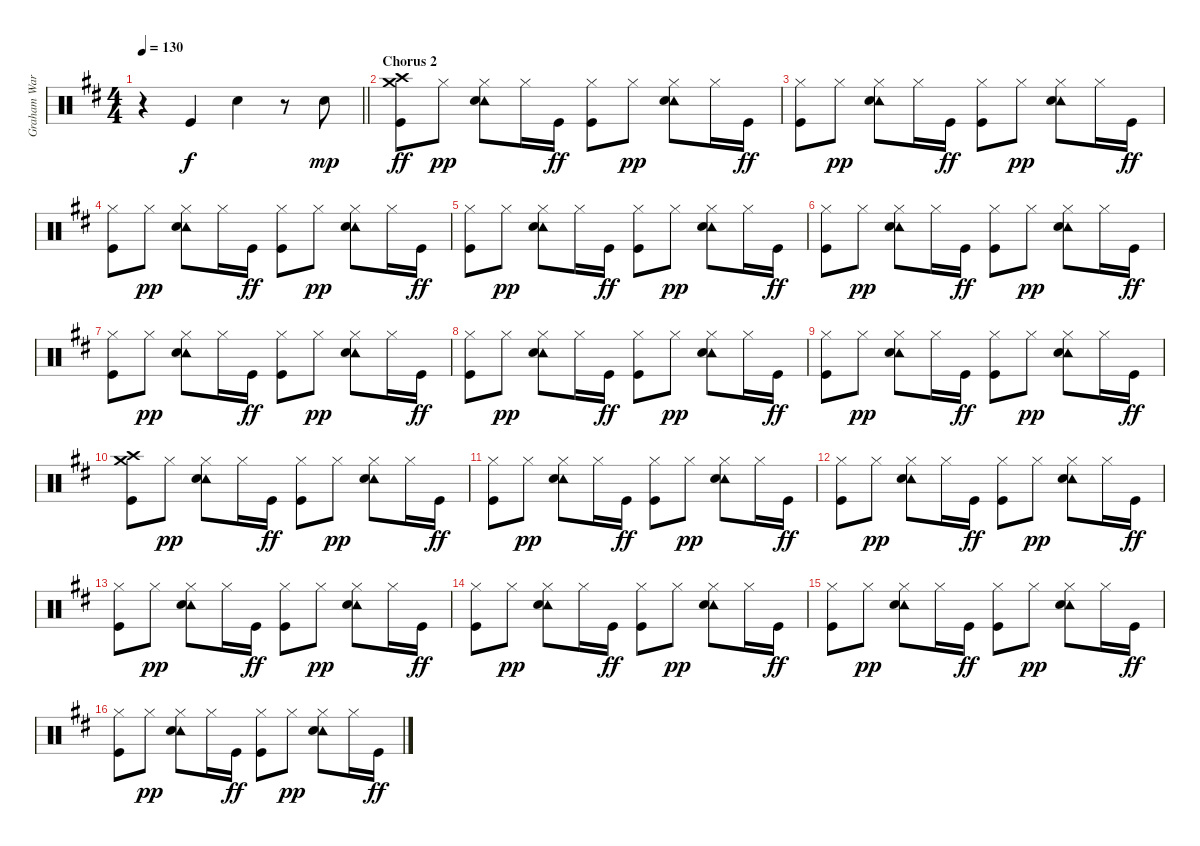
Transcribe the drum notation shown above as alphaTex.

\track ("Graham Ward (DRUMS)" "Graham War") {instrument percussion}
\staff {score}
\articulation defaults
\ts (4 4)
\tempo 130
\clef neutral
\barLineRight lightlight
\ks d
r.4{dy f} "Kick (hit)".4 "Electric Snare (hit)".4 r.8 "Electric Snare (hit)".8{dy mp} |
\section ("" "Chorus 2")
("Crash medium (hit)" "Crash high (hit)" "Kick (hit)").8{dy ff} "Hi-Hat (closed)".8{dy pp} ("Tambourine (hit)" "Snare (hit) 2" "Hi-Hat (closed)").8 "Hi-Hat (closed)".16 "Kick (hit)".16{dy ff} ("Hi-Hat (closed)" "Kick (hit)").8 "Hi-Hat (closed)".8{dy pp} ("Tambourine (hit)" "Snare (hit) 2" "Hi-Hat (closed)").8 "Hi-Hat (closed)".16 "Kick (hit)".16{dy ff} |
("Hi-Hat (closed)" "Kick (hit)").8 "Hi-Hat (closed)".8{dy pp} ("Tambourine (hit)" "Snare (hit) 2" "Hi-Hat (closed)").8 "Hi-Hat (closed)".16 "Kick (hit)".16{dy ff} ("Hi-Hat (closed)" "Kick (hit)").8 "Hi-Hat (closed)".8{dy pp} ("Tambourine (hit)" "Snare (hit) 2" "Hi-Hat (closed)").8 "Hi-Hat (closed)".16 "Kick (hit)".16{dy ff} |
("Hi-Hat (closed)" "Kick (hit)").8 "Hi-Hat (closed)".8{dy pp} ("Tambourine (hit)" "Snare (hit) 2" "Hi-Hat (closed)").8 "Hi-Hat (closed)".16 "Kick (hit)".16{dy ff} ("Hi-Hat (closed)" "Kick (hit)").8 "Hi-Hat (closed)".8{dy pp} ("Tambourine (hit)" "Snare (hit) 2" "Hi-Hat (closed)").8 "Hi-Hat (closed)".16 "Kick (hit)".16{dy ff} |
("Hi-Hat (closed)" "Kick (hit)").8 "Hi-Hat (closed)".8{dy pp} ("Tambourine (hit)" "Snare (hit) 2" "Hi-Hat (closed)").8 "Hi-Hat (closed)".16 "Kick (hit)".16{dy ff} ("Hi-Hat (closed)" "Kick (hit)").8 "Hi-Hat (closed)".8{dy pp} ("Tambourine (hit)" "Snare (hit) 2" "Hi-Hat (closed)").8 "Hi-Hat (closed)".16 "Kick (hit)".16{dy ff} |
("Hi-Hat (closed)" "Kick (hit)").8 "Hi-Hat (closed)".8{dy pp} ("Tambourine (hit)" "Snare (hit) 2" "Hi-Hat (closed)").8 "Hi-Hat (closed)".16 "Kick (hit)".16{dy ff} ("Hi-Hat (closed)" "Kick (hit)").8 "Hi-Hat (closed)".8{dy pp} ("Tambourine (hit)" "Snare (hit) 2" "Hi-Hat (closed)").8 "Hi-Hat (closed)".16 "Kick (hit)".16{dy ff} |
("Hi-Hat (closed)" "Kick (hit)").8 "Hi-Hat (closed)".8{dy pp} ("Tambourine (hit)" "Snare (hit) 2" "Hi-Hat (closed)").8 "Hi-Hat (closed)".16 "Kick (hit)".16{dy ff} ("Hi-Hat (closed)" "Kick (hit)").8 "Hi-Hat (closed)".8{dy pp} ("Tambourine (hit)" "Snare (hit) 2" "Hi-Hat (closed)").8 "Hi-Hat (closed)".16 "Kick (hit)".16{dy ff} |
("Hi-Hat (closed)" "Kick (hit)").8 "Hi-Hat (closed)".8{dy pp} ("Tambourine (hit)" "Snare (hit) 2" "Hi-Hat (closed)").8 "Hi-Hat (closed)".16 "Kick (hit)".16{dy ff} ("Hi-Hat (closed)" "Kick (hit)").8 "Hi-Hat (closed)".8{dy pp} ("Tambourine (hit)" "Snare (hit) 2" "Hi-Hat (closed)").8 "Hi-Hat (closed)".16 "Kick (hit)".16{dy ff} |
("Hi-Hat (closed)" "Kick (hit)").8 "Hi-Hat (closed)".8{dy pp} ("Tambourine (hit)" "Snare (hit) 2" "Hi-Hat (closed)").8 "Hi-Hat (closed)".16 "Kick (hit)".16{dy ff} ("Hi-Hat (closed)" "Kick (hit)").8 "Hi-Hat (closed)".8{dy pp} ("Tambourine (hit)" "Snare (hit) 2" "Hi-Hat (closed)").8 "Hi-Hat (closed)".16 "Kick (hit)".16{dy ff} |
("Crash medium (hit)" "Crash high (hit)" "Kick (hit)").8 "Hi-Hat (closed)".8{dy pp} ("Tambourine (hit)" "Snare (hit) 2" "Hi-Hat (closed)").8 "Hi-Hat (closed)".16 "Kick (hit)".16{dy ff} ("Hi-Hat (closed)" "Kick (hit)").8 "Hi-Hat (closed)".8{dy pp} ("Tambourine (hit)" "Snare (hit) 2" "Hi-Hat (closed)").8 "Hi-Hat (closed)".16 "Kick (hit)".16{dy ff} |
("Hi-Hat (closed)" "Kick (hit)").8 "Hi-Hat (closed)".8{dy pp} ("Tambourine (hit)" "Snare (hit) 2" "Hi-Hat (closed)").8 "Hi-Hat (closed)".16 "Kick (hit)".16{dy ff} ("Hi-Hat (closed)" "Kick (hit)").8 "Hi-Hat (closed)".8{dy pp} ("Tambourine (hit)" "Snare (hit) 2" "Hi-Hat (closed)").8 "Hi-Hat (closed)".16 "Kick (hit)".16{dy ff} |
("Hi-Hat (closed)" "Kick (hit)").8 "Hi-Hat (closed)".8{dy pp} ("Tambourine (hit)" "Snare (hit) 2" "Hi-Hat (closed)").8 "Hi-Hat (closed)".16 "Kick (hit)".16{dy ff} ("Hi-Hat (closed)" "Kick (hit)").8 "Hi-Hat (closed)".8{dy pp} ("Tambourine (hit)" "Snare (hit) 2" "Hi-Hat (closed)").8 "Hi-Hat (closed)".16 "Kick (hit)".16{dy ff} |
("Hi-Hat (closed)" "Kick (hit)").8 "Hi-Hat (closed)".8{dy pp} ("Tambourine (hit)" "Snare (hit) 2" "Hi-Hat (closed)").8 "Hi-Hat (closed)".16 "Kick (hit)".16{dy ff} ("Hi-Hat (closed)" "Kick (hit)").8 "Hi-Hat (closed)".8{dy pp} ("Tambourine (hit)" "Snare (hit) 2" "Hi-Hat (closed)").8 "Hi-Hat (closed)".16 "Kick (hit)".16{dy ff} |
("Hi-Hat (closed)" "Kick (hit)").8 "Hi-Hat (closed)".8{dy pp} ("Tambourine (hit)" "Snare (hit) 2" "Hi-Hat (closed)").8 "Hi-Hat (closed)".16 "Kick (hit)".16{dy ff} ("Hi-Hat (closed)" "Kick (hit)").8 "Hi-Hat (closed)".8{dy pp} ("Tambourine (hit)" "Snare (hit) 2" "Hi-Hat (closed)").8 "Hi-Hat (closed)".16 "Kick (hit)".16{dy ff} |
("Hi-Hat (closed)" "Kick (hit)").8 "Hi-Hat (closed)".8{dy pp} ("Tambourine (hit)" "Snare (hit) 2" "Hi-Hat (closed)").8 "Hi-Hat (closed)".16 "Kick (hit)".16{dy ff} ("Hi-Hat (closed)" "Kick (hit)").8 "Hi-Hat (closed)".8{dy pp} ("Tambourine (hit)" "Snare (hit) 2" "Hi-Hat (closed)").8 "Hi-Hat (closed)".16 "Kick (hit)".16{dy ff} |
("Hi-Hat (closed)" "Kick (hit)").8 "Hi-Hat (closed)".8{dy pp} ("Tambourine (hit)" "Snare (hit) 2" "Hi-Hat (closed)").8 "Hi-Hat (closed)".16 "Kick (hit)".16{dy ff} ("Hi-Hat (closed)" "Kick (hit)").8 "Hi-Hat (closed)".8{dy pp} ("Tambourine (hit)" "Snare (hit) 2" "Hi-Hat (closed)").8 "Hi-Hat (closed)".16 "Kick (hit)".16{dy ff}
